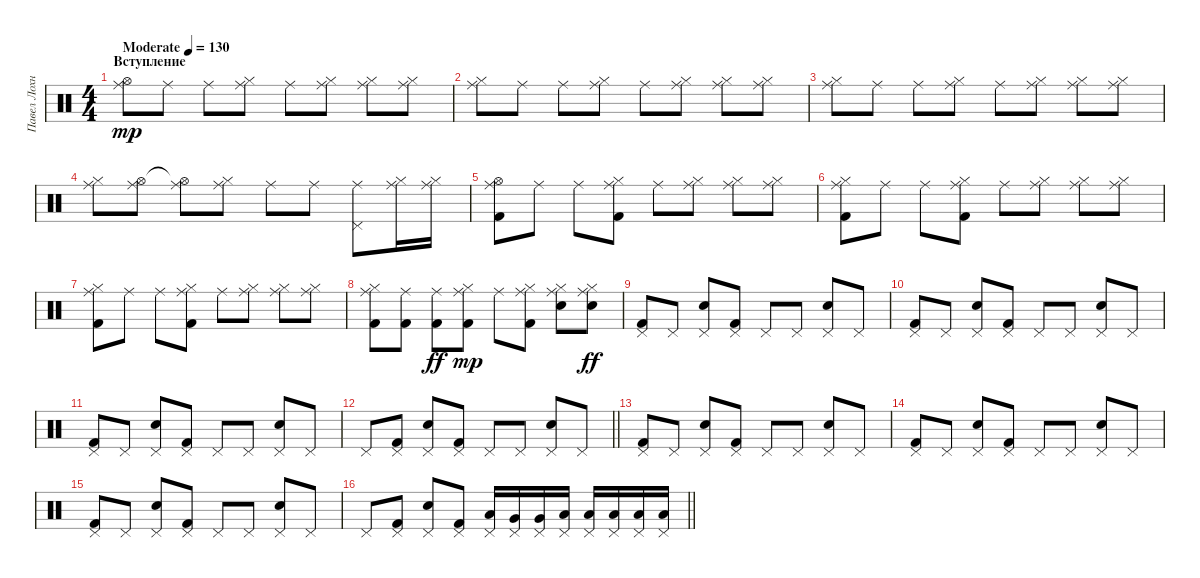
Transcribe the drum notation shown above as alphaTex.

\track ("Павел Лохнин" "Павел Лохн") {instrument percussion}
\staff {score}
\articulation defaults
\ts (4 4)
\section ("" "Вступление")
\tempo (130 "Moderate")
\clef neutral
\ks c
("Ride (middle)" "Hi-Hat (open)").8{dy mp} "Ride (middle)".8 "Ride (middle)".8 ("Ride (middle)" "Hi-Hat (closed)").8 "Ride (middle)".8 ("Ride (middle)" "Hi-Hat (closed)").8 ("Ride (middle)" "Hi-Hat (closed)").8 ("Ride (middle)" "Hi-Hat (closed)").8 |
("Ride (middle)" "Hi-Hat (closed)").8 "Ride (middle)".8 "Ride (middle)".8 ("Ride (middle)" "Hi-Hat (closed)").8 "Ride (middle)".8 ("Ride (middle)" "Hi-Hat (closed)").8 ("Ride (middle)" "Hi-Hat (closed)").8 ("Ride (middle)" "Hi-Hat (closed)").8 |
("Ride (middle)" "Hi-Hat (closed)").8 "Ride (middle)".8 "Ride (middle)".8 ("Ride (middle)" "Hi-Hat (closed)").8 "Ride (middle)".8 ("Ride (middle)" "Hi-Hat (closed)").8 ("Ride (middle)" "Hi-Hat (closed)").8 ("Ride (middle)" "Hi-Hat (closed)").8 |
("Ride (middle)" "Hi-Hat (closed)").8 ("Ride (middle)" "Hi-Hat (open)").8 ("Ride (middle)" "Hi-Hat (open)"{t}).8 ("Ride (middle)" "Hi-Hat (closed)").8 "Ride (middle)".8 "Ride (middle)".8 ("Ride (middle)" "Pedal Hi-Hat (hit)").8 ("Ride (middle)" "Hi-Hat (closed)").16 ("Ride (middle)" "Hi-Hat (closed)").16 |
("Ride (middle)" "Hi-Hat (open)" "Kick (hit) 2").8 "Ride (middle)".8 "Ride (middle)".8 ("Ride (middle)" "Hi-Hat (closed)" "Kick (hit) 2").8 "Ride (middle)".8 ("Ride (middle)" "Hi-Hat (closed)").8 ("Ride (middle)" "Hi-Hat (closed)").8 ("Ride (middle)" "Hi-Hat (closed)").8 |
("Ride (middle)" "Hi-Hat (closed)" "Kick (hit) 2").8 "Ride (middle)".8 "Ride (middle)".8 ("Ride (middle)" "Hi-Hat (closed)" "Kick (hit) 2").8 "Ride (middle)".8 ("Ride (middle)" "Hi-Hat (closed)").8 ("Ride (middle)" "Hi-Hat (closed)").8 ("Ride (middle)" "Hi-Hat (closed)").8 |
("Ride (middle)" "Hi-Hat (closed)" "Kick (hit) 2").8 "Ride (middle)".8 "Ride (middle)".8 ("Ride (middle)" "Hi-Hat (closed)" "Kick (hit) 2").8 "Ride (middle)".8 ("Ride (middle)" "Hi-Hat (closed)").8 ("Ride (middle)" "Hi-Hat (closed)").8 ("Ride (middle)" "Hi-Hat (closed)").8 |
("Ride (middle)" "Hi-Hat (closed)" "Kick (hit) 2").8 ("Ride (middle)" "Kick (hit) 2").8 ("Ride (middle)" "Kick (hit) 2").8{dy ff} ("Ride (middle)" "Hi-Hat (closed)" "Kick (hit) 2").8{dy mp} "Ride (middle)".8 ("Ride (middle)" "Hi-Hat (closed)" "Kick (hit) 2").8 ("Ride (middle)" "Hi-Hat (closed)" "Snare (hit) 2").8 ("Ride (middle)" "Hi-Hat (closed)" "Electric Snare (hit)").8{dy ff} |
("Pedal Hi-Hat (hit)" "Kick (hit) 2").8 "Pedal Hi-Hat (hit)".8 ("Pedal Hi-Hat (hit)" "Electric Snare (hit)").8 ("Pedal Hi-Hat (hit)" "Kick (hit) 2").8 "Pedal Hi-Hat (hit)".8 "Pedal Hi-Hat (hit)".8 ("Pedal Hi-Hat (hit)" "Electric Snare (hit)").8 "Pedal Hi-Hat (hit)".8 |
("Pedal Hi-Hat (hit)" "Kick (hit) 2").8 "Pedal Hi-Hat (hit)".8 ("Pedal Hi-Hat (hit)" "Electric Snare (hit)").8 ("Pedal Hi-Hat (hit)" "Kick (hit) 2").8 "Pedal Hi-Hat (hit)".8 "Pedal Hi-Hat (hit)".8 ("Pedal Hi-Hat (hit)" "Electric Snare (hit)").8 "Pedal Hi-Hat (hit)".8 |
("Pedal Hi-Hat (hit)" "Kick (hit) 2").8 "Pedal Hi-Hat (hit)".8 ("Pedal Hi-Hat (hit)" "Electric Snare (hit)").8 ("Pedal Hi-Hat (hit)" "Kick (hit) 2").8 "Pedal Hi-Hat (hit)".8 "Pedal Hi-Hat (hit)".8 ("Pedal Hi-Hat (hit)" "Electric Snare (hit)").8 "Pedal Hi-Hat (hit)".8 |
\barLineRight lightlight "Pedal Hi-Hat (hit)".8
("Pedal Hi-Hat (hit)" "Kick (hit) 2").8 ("Pedal Hi-Hat (hit)" "Electric Snare (hit)").8 ("Pedal Hi-Hat (hit)" "Kick (hit) 2").8 "Pedal Hi-Hat (hit)".8 "Pedal Hi-Hat (hit)".8 ("Pedal Hi-Hat (hit)" "Electric Snare (hit)").8 "Pedal Hi-Hat (hit)".8 |
("Pedal Hi-Hat (hit)" "Kick (hit) 2").8 "Pedal Hi-Hat (hit)".8 ("Pedal Hi-Hat (hit)" "Electric Snare (hit)").8 ("Pedal Hi-Hat (hit)" "Kick (hit) 2").8 "Pedal Hi-Hat (hit)".8 "Pedal Hi-Hat (hit)".8 ("Pedal Hi-Hat (hit)" "Electric Snare (hit)").8 "Pedal Hi-Hat (hit)".8 |
("Pedal Hi-Hat (hit)" "Kick (hit) 2").8 "Pedal Hi-Hat (hit)".8 ("Pedal Hi-Hat (hit)" "Electric Snare (hit)").8 ("Pedal Hi-Hat (hit)" "Kick (hit) 2").8 "Pedal Hi-Hat (hit)".8 "Pedal Hi-Hat (hit)".8 ("Pedal Hi-Hat (hit)" "Electric Snare (hit)").8 "Pedal Hi-Hat (hit)".8 |
("Pedal Hi-Hat (hit)" "Kick (hit) 2").8 "Pedal Hi-Hat (hit)".8 ("Pedal Hi-Hat (hit)" "Electric Snare (hit)").8 ("Pedal Hi-Hat (hit)" "Kick (hit) 2").8 "Pedal Hi-Hat (hit)".8 "Pedal Hi-Hat (hit)".8 ("Pedal Hi-Hat (hit)" "Electric Snare (hit)").8 "Pedal Hi-Hat (hit)".8 |
\barLineRight lightlight "Pedal Hi-Hat (hit)".8
("Pedal Hi-Hat (hit)" "Kick (hit) 2").8 ("Pedal Hi-Hat (hit)" "Electric Snare (hit)").8 ("Pedal Hi-Hat (hit)" "Kick (hit) 2").8 ("Pedal Hi-Hat (hit)" "Low Tom (hit)").16 ("Pedal Hi-Hat (hit)" "Very Low Tom (hit)").16 ("Pedal Hi-Hat (hit)" "Very Low Tom (hit)").16 ("Pedal Hi-Hat (hit)" "Low Floor Tom (hit)").16 ("Pedal Hi-Hat (hit)" "Low Floor Tom (hit)").16 ("Pedal Hi-Hat (hit)" "Low Floor Tom (hit)").16 ("Pedal Hi-Hat (hit)" "Low Floor Tom (hit)").16 ("Pedal Hi-Hat (hit)" "Low Floor Tom (hit)").16
